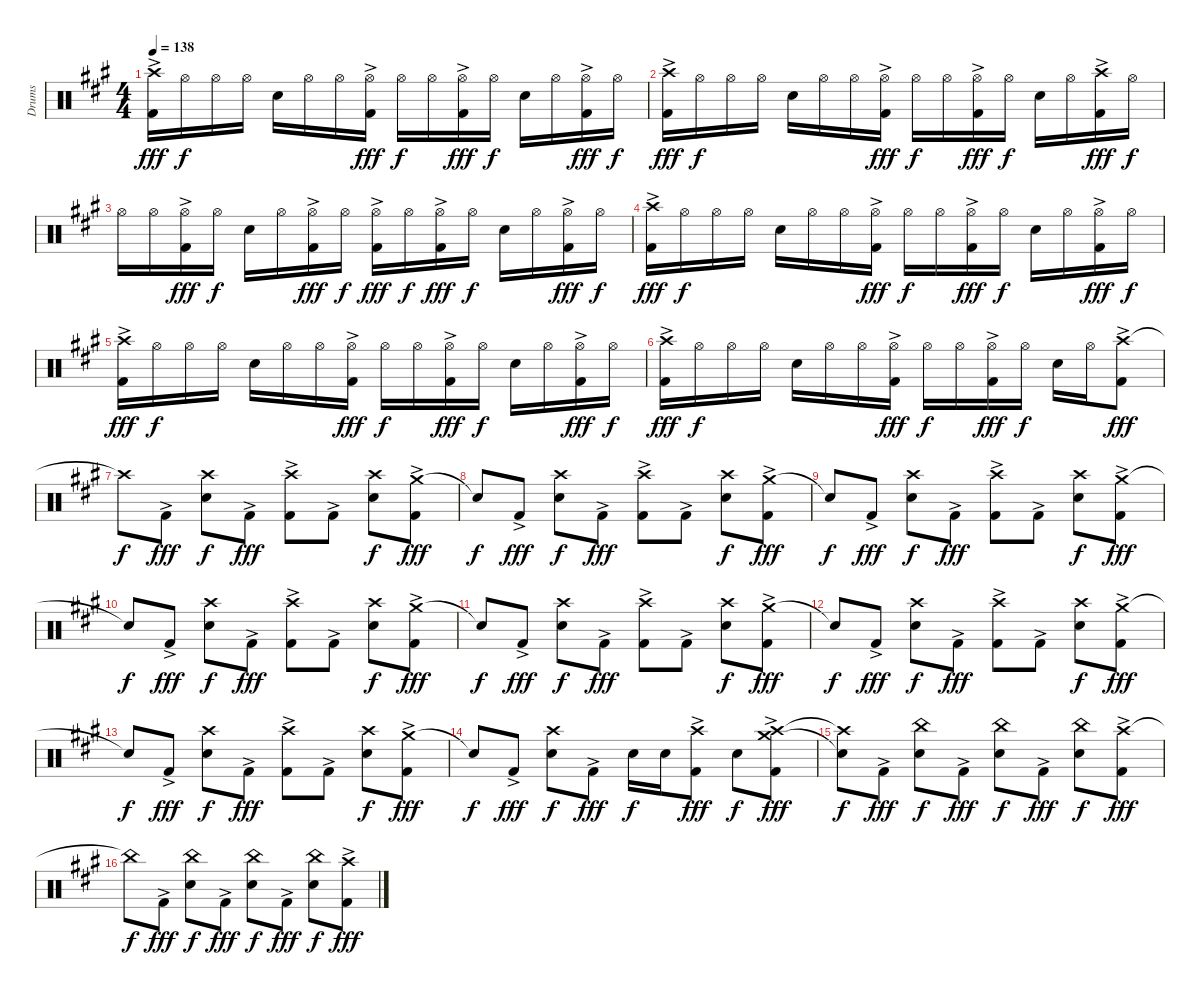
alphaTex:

\track ("Drums" "Drums") {instrument percussion}
\staff {score}
\articulation defaults
\ts (4 4)
\tempo 138
\clef neutral
\ks f#minor
("Crash high (hit)" "Kick (hit) 2"{ac}).16{dy fff} "Hi-Hat (open)".16{dy f} "Hi-Hat (open)".16 "Hi-Hat (open)".16 "Snare (hit) 2".16 "Hi-Hat (open)".16 "Hi-Hat (open)".16 ("Hi-Hat (open)" "Kick (hit) 2"{ac}).16{dy fff} "Hi-Hat (open)".16{dy f} "Hi-Hat (open)".16 ("Hi-Hat (open)" "Kick (hit) 2"{ac}).16{dy fff} "Hi-Hat (open)".16{dy f} "Snare (hit) 2".16 "Hi-Hat (open)".16 ("Hi-Hat (open)" "Kick (hit) 2"{ac}).16{dy fff} "Hi-Hat (open)".16{dy f} |
("Crash high (hit)" "Kick (hit) 2"{ac}).16{dy fff} "Hi-Hat (open)".16{dy f} "Hi-Hat (open)".16 "Hi-Hat (open)".16 "Snare (hit) 2".16 "Hi-Hat (open)".16 "Hi-Hat (open)".16 ("Hi-Hat (open)" "Kick (hit) 2"{ac}).16{dy fff} "Hi-Hat (open)".16{dy f} "Hi-Hat (open)".16 ("Hi-Hat (open)" "Kick (hit) 2"{ac}).16{dy fff} "Hi-Hat (open)".16{dy f} "Snare (hit) 2".16 "Hi-Hat (open)".16 ("Crash high (hit)" "Kick (hit) 2"{ac}).16{dy fff} "Hi-Hat (open)".16{dy f} |
"Hi-Hat (open)".16 "Hi-Hat (open)".16 ("Hi-Hat (open)" "Kick (hit) 2"{ac}).16{dy fff} "Hi-Hat (open)".16{dy f} "Snare (hit) 2".16 "Hi-Hat (open)".16 ("Hi-Hat (open)" "Kick (hit) 2"{ac}).16{dy fff} "Hi-Hat (open)".16{dy f} ("Hi-Hat (open)" "Kick (hit) 2"{ac}).16{dy fff} "Hi-Hat (open)".16{dy f} ("Hi-Hat (open)" "Kick (hit) 2"{ac}).16{dy fff} "Hi-Hat (open)".16{dy f} "Snare (hit) 2".16 "Hi-Hat (open)".16 ("Hi-Hat (open)" "Kick (hit) 2"{ac}).16{dy fff} "Hi-Hat (open)".16{dy f} |
("Crash high (hit)" "Kick (hit) 2"{ac}).16{dy fff} "Hi-Hat (open)".16{dy f} "Hi-Hat (open)".16 "Hi-Hat (open)".16 "Snare (hit) 2".16 "Hi-Hat (open)".16 "Hi-Hat (open)".16 ("Hi-Hat (open)" "Kick (hit) 2"{ac}).16{dy fff} "Hi-Hat (open)".16{dy f} "Hi-Hat (open)".16 ("Hi-Hat (open)" "Kick (hit) 2"{ac}).16{dy fff} "Hi-Hat (open)".16{dy f} "Snare (hit) 2".16 "Hi-Hat (open)".16 ("Hi-Hat (open)" "Kick (hit) 2"{ac}).16{dy fff} "Hi-Hat (open)".16{dy f} |
("Crash high (hit)" "Kick (hit) 2"{ac}).16{dy fff} "Hi-Hat (open)".16{dy f} "Hi-Hat (open)".16 "Hi-Hat (open)".16 "Snare (hit) 2".16 "Hi-Hat (open)".16 "Hi-Hat (open)".16 ("Hi-Hat (open)" "Kick (hit) 2"{ac}).16{dy fff} "Hi-Hat (open)".16{dy f} "Hi-Hat (open)".16 ("Hi-Hat (open)" "Kick (hit) 2"{ac}).16{dy fff} "Hi-Hat (open)".16{dy f} "Snare (hit) 2".16 "Hi-Hat (open)".16 ("Hi-Hat (open)" "Kick (hit) 2"{ac}).16{dy fff} "Hi-Hat (open)".16{dy f} |
("Crash high (hit)" "Kick (hit) 2"{ac}).16{dy fff} "Hi-Hat (open)".16{dy f} "Hi-Hat (open)".16 "Hi-Hat (open)".16 "Snare (hit) 2".16 "Hi-Hat (open)".16 "Hi-Hat (open)".16 ("Hi-Hat (open)" "Kick (hit) 2"{ac}).16{dy fff} "Hi-Hat (open)".16{dy f} "Hi-Hat (open)".16 ("Hi-Hat (open)" "Kick (hit) 2"{ac}).16{dy fff} "Hi-Hat (open)".16{dy f} "Snare (hit) 2".16 "Hi-Hat (open)".16 ("Crash high (hit)" "Kick (hit) 2"{ac}).8{dy fff} |
"Crash high (hit)"{t}.8{dy f} "Kick (hit) 2"{ac}.8{dy fff} ("Crash high (hit)" "Snare (hit) 2").8{dy f} "Kick (hit) 2"{ac}.8{dy fff} ("Crash high (hit)" "Kick (hit) 2"{ac}).8 "Kick (hit) 2"{ac}.8 ("Crash high (hit)" "Snare (hit) 2").8{dy f} ("Crash medium (hit)" "Kick (hit) 2"{ac}).8{dy fff} |
"Snare (hit)"{t}.8{dy f} "Kick (hit) 2"{ac}.8{dy fff} ("Crash high (hit)" "Snare (hit) 2").8{dy f} "Kick (hit) 2"{ac}.8{dy fff} ("Crash high (hit)" "Kick (hit) 2"{ac}).8 "Kick (hit) 2"{ac}.8 ("Crash high (hit)" "Snare (hit) 2").8{dy f} ("Crash medium (hit)" "Kick (hit) 2"{ac}).8{dy fff} |
"Snare (hit)"{t}.8{dy f} "Kick (hit) 2"{ac}.8{dy fff} ("Crash high (hit)" "Snare (hit) 2").8{dy f} "Kick (hit) 2"{ac}.8{dy fff} ("Crash high (hit)" "Kick (hit) 2"{ac}).8 "Kick (hit) 2"{ac}.8 ("Crash high (hit)" "Snare (hit) 2").8{dy f} ("Crash medium (hit)" "Kick (hit) 2"{ac}).8{dy fff} |
"Snare (hit)"{t}.8{dy f} "Kick (hit) 2"{ac}.8{dy fff} ("Crash high (hit)" "Snare (hit) 2").8{dy f} "Kick (hit) 2"{ac}.8{dy fff} ("Crash high (hit)" "Kick (hit) 2"{ac}).8 "Kick (hit) 2"{ac}.8 ("Crash high (hit)" "Snare (hit) 2").8{dy f} ("Crash medium (hit)" "Kick (hit) 2"{ac}).8{dy fff} |
"Snare (hit)"{t}.8{dy f} "Kick (hit) 2"{ac}.8{dy fff} ("Crash high (hit)" "Snare (hit) 2").8{dy f} "Kick (hit) 2"{ac}.8{dy fff} ("Crash high (hit)" "Kick (hit) 2"{ac}).8 "Kick (hit) 2"{ac}.8 ("Crash high (hit)" "Snare (hit) 2").8{dy f} ("Crash medium (hit)" "Kick (hit) 2"{ac}).8{dy fff} |
"Snare (hit)"{t}.8{dy f} "Kick (hit) 2"{ac}.8{dy fff} ("Crash high (hit)" "Snare (hit) 2").8{dy f} "Kick (hit) 2"{ac}.8{dy fff} ("Crash high (hit)" "Kick (hit) 2"{ac}).8 "Kick (hit) 2"{ac}.8 ("Crash high (hit)" "Snare (hit) 2").8{dy f} ("Crash medium (hit)" "Kick (hit) 2"{ac}).8{dy fff} |
"Snare (hit)"{t}.8{dy f} "Kick (hit) 2"{ac}.8{dy fff} ("Crash high (hit)" "Snare (hit) 2").8{dy f} "Kick (hit) 2"{ac}.8{dy fff} ("Crash high (hit)" "Kick (hit) 2"{ac}).8 "Kick (hit) 2"{ac}.8 ("Crash high (hit)" "Snare (hit) 2").8{dy f} ("Crash medium (hit)" "Kick (hit) 2"{ac}).8{dy fff} |
"Snare (hit)"{t}.8{dy f} "Kick (hit) 2"{ac}.8{dy fff} ("Crash high (hit)" "Snare (hit) 2").8{dy f} "Kick (hit) 2"{ac}.8{dy fff} "Snare (hit) 2".16{dy f} "Snare (hit) 2".16 ("Crash high (hit)" "Kick (hit) 2"{ac}).8{dy fff} "Snare (hit) 2".8{dy f} ("Crash high (hit)" "Crash medium (hit)" "Kick (hit) 2"{ac}).8{dy fff} |
("Crash high (hit)"{t} "Snare (hit)"{t}).8{dy f} "Kick (hit) 2"{ac}.8{dy fff} ("China (hit)" "Snare (hit) 2").8{dy f} "Kick (hit) 2"{ac}.8{dy fff} ("China (hit)" "Snare (hit) 2").8{dy f} "Kick (hit) 2"{ac}.8{dy fff} ("China (hit)" "Snare (hit) 2").8{dy f} ("Crash high (hit)" "Kick (hit) 2"{ac}).8{dy fff} |
"China (hit)"{t}.8{dy f} "Kick (hit) 2"{ac}.8{dy fff} ("China (hit)" "Snare (hit) 2").8{dy f} "Kick (hit) 2"{ac}.8{dy fff} ("China (hit)" "Snare (hit) 2").8{dy f} "Kick (hit) 2"{ac}.8{dy fff} ("China (hit)" "Snare (hit) 2").8{dy f} ("Crash high (hit)" "Kick (hit) 2"{ac}).8{dy fff}
